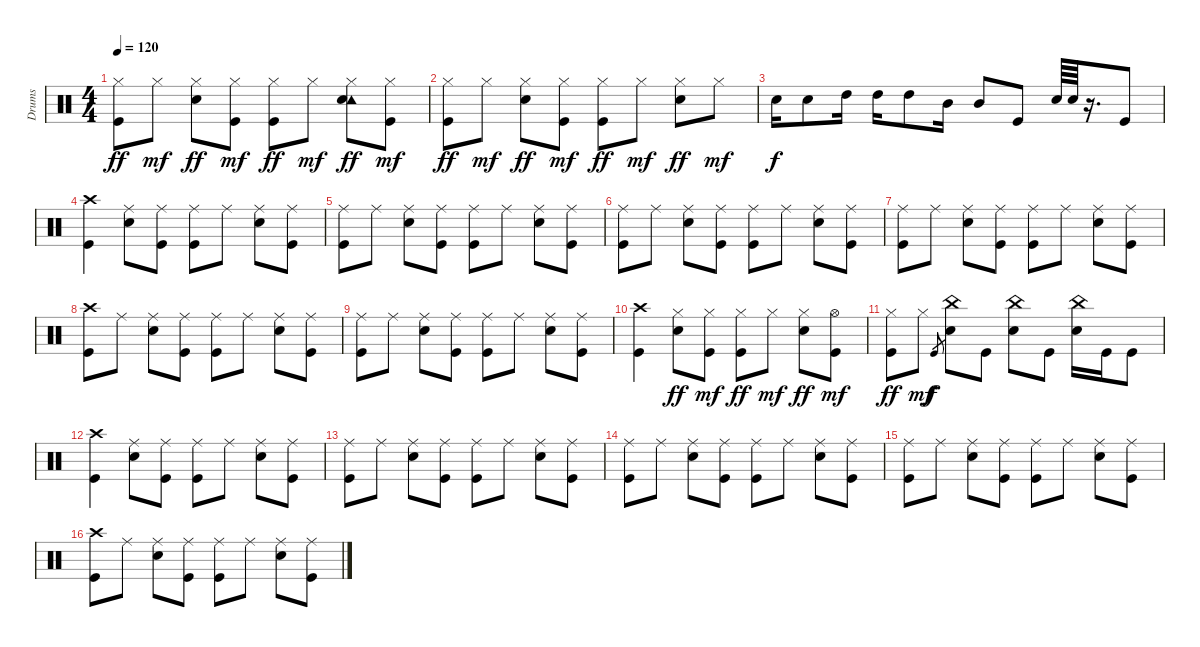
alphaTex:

\track ("Drums" "Drums") {instrument percussion}
\staff {score}
\articulation defaults
\ts (4 4)
\tempo 120
\clef neutral
\ks c
("Hi-Hat (closed)" "Kick (hit)").8{dy ff} "Hi-Hat (closed)".8{dy mf} ("Hi-Hat (closed)" "Snare (hit) 2").8{dy ff} ("Hi-Hat (closed)" "Kick (hit)").8{dy mf} ("Hi-Hat (closed)" "Kick (hit)").8{dy ff} "Hi-Hat (closed)".8{dy mf} ("Hi-Hat (closed)" "Tambourine (hit)" "Snare (hit) 2").8{dy ff} ("Hi-Hat (closed)" "Kick (hit)").8{dy mf} |
("Hi-Hat (closed)" "Kick (hit)").8{dy ff} "Hi-Hat (closed)".8{dy mf} ("Hi-Hat (closed)" "Snare (hit) 2").8{dy ff} ("Hi-Hat (closed)" "Kick (hit)").8{dy mf} ("Hi-Hat (closed)" "Kick (hit)").8{dy ff} "Hi-Hat (closed)".8{dy mf} ("Hi-Hat (closed)" "Snare (hit) 2").8{dy ff} "Hi-Hat (closed)".8{dy mf} |
"Snare (hit) 2".16{dy f} "Snare (hit) 2".8 "High Tom (hit)".16 "High Tom (hit)".16 "High Tom (hit)".8 "Mid Tom (hit)".16 "Mid Tom (hit)".8 "Kick (hit)".8 "Snare (hit) 2".64 "Snare (hit) 2".64 r.16{d} "Kick (hit)".8 |
("Crash high (hit)" "Kick (hit)").4 ("Ride (middle)" "Snare (hit) 2").8 ("Ride (middle)" "Kick (hit)").8 ("Ride (middle)" "Kick (hit)").8 "Ride (middle)".8 ("Ride (middle)" "Snare (hit) 2").8 ("Ride (middle)" "Kick (hit)").8 |
("Ride (middle)" "Kick (hit)").8 "Ride (middle)".8 ("Ride (middle)" "Snare (hit) 2").8 ("Ride (middle)" "Kick (hit)").8 ("Ride (middle)" "Kick (hit)").8 "Ride (middle)".8 ("Ride (middle)" "Snare (hit) 2").8 ("Ride (middle)" "Kick (hit)").8 |
("Ride (middle)" "Kick (hit)").8 "Ride (middle)".8 ("Ride (middle)" "Snare (hit) 2").8 ("Ride (middle)" "Kick (hit)").8 ("Ride (middle)" "Kick (hit)").8 "Ride (middle)".8 ("Ride (middle)" "Snare (hit) 2").8 ("Ride (middle)" "Kick (hit)").8 |
("Ride (middle)" "Kick (hit)").8 "Ride (middle)".8 ("Ride (middle)" "Snare (hit) 2").8 ("Ride (middle)" "Kick (hit)").8 ("Ride (middle)" "Kick (hit)").8 "Ride (middle)".8 ("Ride (middle)" "Snare (hit) 2").8 ("Ride (middle)" "Kick (hit)").8 |
("Crash high (hit)" "Kick (hit)").8 "Ride (middle)".8 ("Ride (middle)" "Snare (hit) 2").8 ("Ride (middle)" "Kick (hit)").8 ("Ride (middle)" "Kick (hit)").8 "Ride (middle)".8 ("Ride (middle)" "Snare (hit) 2").8 ("Ride (middle)" "Kick (hit)").8 |
("Ride (middle)" "Kick (hit)").8 "Ride (middle)".8 ("Ride (middle)" "Snare (hit) 2").8 ("Ride (middle)" "Kick (hit)").8 ("Ride (middle)" "Kick (hit)").8 "Ride (middle)".8 ("Ride (middle)" "Snare (hit) 2").8 ("Ride (middle)" "Kick (hit)").8 |
("Crash high (hit)" "Kick (hit)").4 ("Hi-Hat (closed)" "Snare (hit) 2").8{dy ff} ("Hi-Hat (closed)" "Kick (hit)").8{dy mf} ("Hi-Hat (closed)" "Kick (hit)").8{dy ff} "Hi-Hat (closed)".8{dy mf} ("Hi-Hat (closed)" "Snare (hit) 2").8{dy ff} ("Hi-Hat (open)" "Kick (hit)").8{dy mf} |
("Hi-Hat (closed)" "Kick (hit)").8{dy ff} "Hi-Hat (closed)".8{dy mf} "Kick (hit)".8{gr dy f} ("China (hit)" "Snare (hit) 2").8 "Kick (hit)".8 ("China (hit)" "Snare (hit) 2").8 "Kick (hit)".8 ("China (hit)" "Snare (hit) 2").16 "Kick (hit)".16 "Kick (hit)".8 |
("Crash high (hit)" "Kick (hit)").4 ("Ride (middle)" "Snare (hit) 2").8 ("Ride (middle)" "Kick (hit)").8 ("Ride (middle)" "Kick (hit)").8 "Ride (middle)".8 ("Ride (middle)" "Snare (hit) 2").8 ("Ride (middle)" "Kick (hit)").8 |
("Ride (middle)" "Kick (hit)").8 "Ride (middle)".8 ("Ride (middle)" "Snare (hit) 2").8 ("Ride (middle)" "Kick (hit)").8 ("Ride (middle)" "Kick (hit)").8 "Ride (middle)".8 ("Ride (middle)" "Snare (hit) 2").8 ("Ride (middle)" "Kick (hit)").8 |
("Ride (middle)" "Kick (hit)").8 "Ride (middle)".8 ("Ride (middle)" "Snare (hit) 2").8 ("Ride (middle)" "Kick (hit)").8 ("Ride (middle)" "Kick (hit)").8 "Ride (middle)".8 ("Ride (middle)" "Snare (hit) 2").8 ("Ride (middle)" "Kick (hit)").8 |
("Ride (middle)" "Kick (hit)").8 "Ride (middle)".8 ("Ride (middle)" "Snare (hit) 2").8 ("Ride (middle)" "Kick (hit)").8 ("Ride (middle)" "Kick (hit)").8 "Ride (middle)".8 ("Ride (middle)" "Snare (hit) 2").8 ("Ride (middle)" "Kick (hit)").8 |
("Crash high (hit)" "Kick (hit)").8 "Ride (middle)".8 ("Ride (middle)" "Snare (hit) 2").8 ("Ride (middle)" "Kick (hit)").8 ("Ride (middle)" "Kick (hit)").8 "Ride (middle)".8 ("Ride (middle)" "Snare (hit) 2").8 ("Ride (middle)" "Kick (hit)").8
